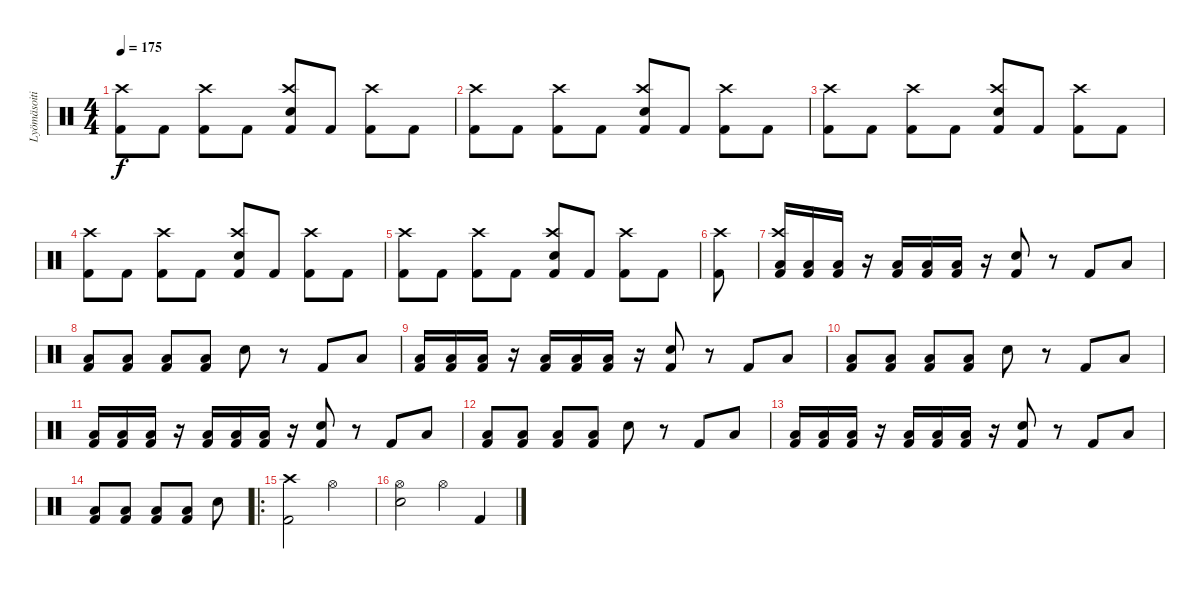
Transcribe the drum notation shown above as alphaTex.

\track ("Lyömäsoitin" "Lyömäsoiti") {instrument percussion}
\staff {score}
\articulation defaults
\ts (4 4)
\tempo 175
\clef neutral
\ks c
("Kick (hit) 2" "Crash high (hit)").8{dy f} "Kick (hit) 2".8 ("Kick (hit) 2" "Crash high (hit)").8 "Kick (hit) 2".8 ("Kick (hit) 2" "Electric Snare (hit)" "Crash high (hit)").8 "Kick (hit) 2".8 ("Kick (hit) 2" "Crash high (hit)").8 "Kick (hit) 2".8 |
("Kick (hit) 2" "Crash high (hit)").8 "Kick (hit) 2".8 ("Kick (hit) 2" "Crash high (hit)").8 "Kick (hit) 2".8 ("Kick (hit) 2" "Electric Snare (hit)" "Crash high (hit)").8 "Kick (hit) 2".8 ("Kick (hit) 2" "Crash high (hit)").8 "Kick (hit) 2".8 |
("Kick (hit) 2" "Crash high (hit)").8 "Kick (hit) 2".8 ("Kick (hit) 2" "Crash high (hit)").8 "Kick (hit) 2".8 ("Kick (hit) 2" "Electric Snare (hit)" "Crash high (hit)").8 "Kick (hit) 2".8 ("Kick (hit) 2" "Crash high (hit)").8 "Kick (hit) 2".8 |
("Kick (hit) 2" "Crash high (hit)").8 "Kick (hit) 2".8 ("Kick (hit) 2" "Crash high (hit)").8 "Kick (hit) 2".8 ("Kick (hit) 2" "Electric Snare (hit)" "Crash high (hit)").8 "Kick (hit) 2".8 ("Kick (hit) 2" "Crash high (hit)").8 "Kick (hit) 2".8 |
("Kick (hit) 2" "Crash high (hit)").8 "Kick (hit) 2".8 ("Kick (hit) 2" "Crash high (hit)").8 "Kick (hit) 2".8 ("Kick (hit) 2" "Electric Snare (hit)" "Crash high (hit)").8 "Kick (hit) 2".8 ("Kick (hit) 2" "Crash high (hit)").8 "Kick (hit) 2".8 |
("Kick (hit) 2" "Crash high (hit)").8 |
("Kick (hit) 2" "Low Tom (hit)" "Crash high (hit)").16 ("Kick (hit) 2" "Low Tom (hit)").16 ("Kick (hit) 2" "Low Tom (hit)").16 r.16 ("Kick (hit) 2" "Low Floor Tom (hit)").16 ("Kick (hit) 2" "Low Floor Tom (hit)").16 ("Kick (hit) 2" "Low Floor Tom (hit)").16 r.16 ("Kick (hit) 2" "Electric Snare (hit)").8 r.8 "Kick (hit) 2".8 "Low Floor Tom (hit)".8 |
("Kick (hit) 2" "Low Floor Tom (hit)").8 ("Kick (hit) 2" "Low Tom (hit)").8 ("Kick (hit) 2" "Low Floor Tom (hit)").8 ("Kick (hit) 2" "Low Tom (hit)").8 "Electric Snare (hit)".8 r.8 "Kick (hit) 2".8 "Low Floor Tom (hit)".8 |
("Kick (hit) 2" "Low Tom (hit)").16 ("Kick (hit) 2" "Low Tom (hit)").16 ("Kick (hit) 2" "Low Tom (hit)").16 r.16 ("Kick (hit) 2" "Low Floor Tom (hit)").16 ("Kick (hit) 2" "Low Floor Tom (hit)").16 ("Kick (hit) 2" "Low Floor Tom (hit)").16 r.16 ("Kick (hit) 2" "Electric Snare (hit)").8 r.8 "Kick (hit) 2".8 "Low Floor Tom (hit)".8 |
("Kick (hit) 2" "Low Floor Tom (hit)").8 ("Kick (hit) 2" "Low Tom (hit)").8 ("Kick (hit) 2" "Low Floor Tom (hit)").8 ("Kick (hit) 2" "Low Tom (hit)").8 "Electric Snare (hit)".8 r.8 "Kick (hit) 2".8 "Low Floor Tom (hit)".8 |
("Kick (hit) 2" "Low Tom (hit)").16 ("Kick (hit) 2" "Low Tom (hit)").16 ("Kick (hit) 2" "Low Tom (hit)").16 r.16 ("Kick (hit) 2" "Low Floor Tom (hit)").16 ("Kick (hit) 2" "Low Floor Tom (hit)").16 ("Kick (hit) 2" "Low Floor Tom (hit)").16 r.16 ("Kick (hit) 2" "Electric Snare (hit)").8 r.8 "Kick (hit) 2".8 "Low Floor Tom (hit)".8 |
("Kick (hit) 2" "Low Floor Tom (hit)").8 ("Kick (hit) 2" "Low Tom (hit)").8 ("Kick (hit) 2" "Low Floor Tom (hit)").8 ("Kick (hit) 2" "Low Tom (hit)").8 "Electric Snare (hit)".8 r.8 "Kick (hit) 2".8 "Low Floor Tom (hit)".8 |
("Kick (hit) 2" "Low Tom (hit)").16 ("Kick (hit) 2" "Low Tom (hit)").16 ("Kick (hit) 2" "Low Tom (hit)").16 r.16 ("Kick (hit) 2" "Low Floor Tom (hit)").16 ("Kick (hit) 2" "Low Floor Tom (hit)").16 ("Kick (hit) 2" "Low Floor Tom (hit)").16 r.16 ("Kick (hit) 2" "Electric Snare (hit)").8 r.8 "Kick (hit) 2".8 "Low Floor Tom (hit)".8 |
("Kick (hit) 2" "Low Floor Tom (hit)").8 ("Kick (hit) 2" "Low Tom (hit)").8 ("Kick (hit) 2" "Low Floor Tom (hit)").8 ("Kick (hit) 2" "Low Tom (hit)").8 "Electric Snare (hit)".8 |
\ro
("Kick (hit) 2" "Crash high (hit)").2 "Hi-Hat (open)".2 |
("Electric Snare (hit)" "Hi-Hat (open)").2 "Hi-Hat (open)".4 "Kick (hit) 2".4
